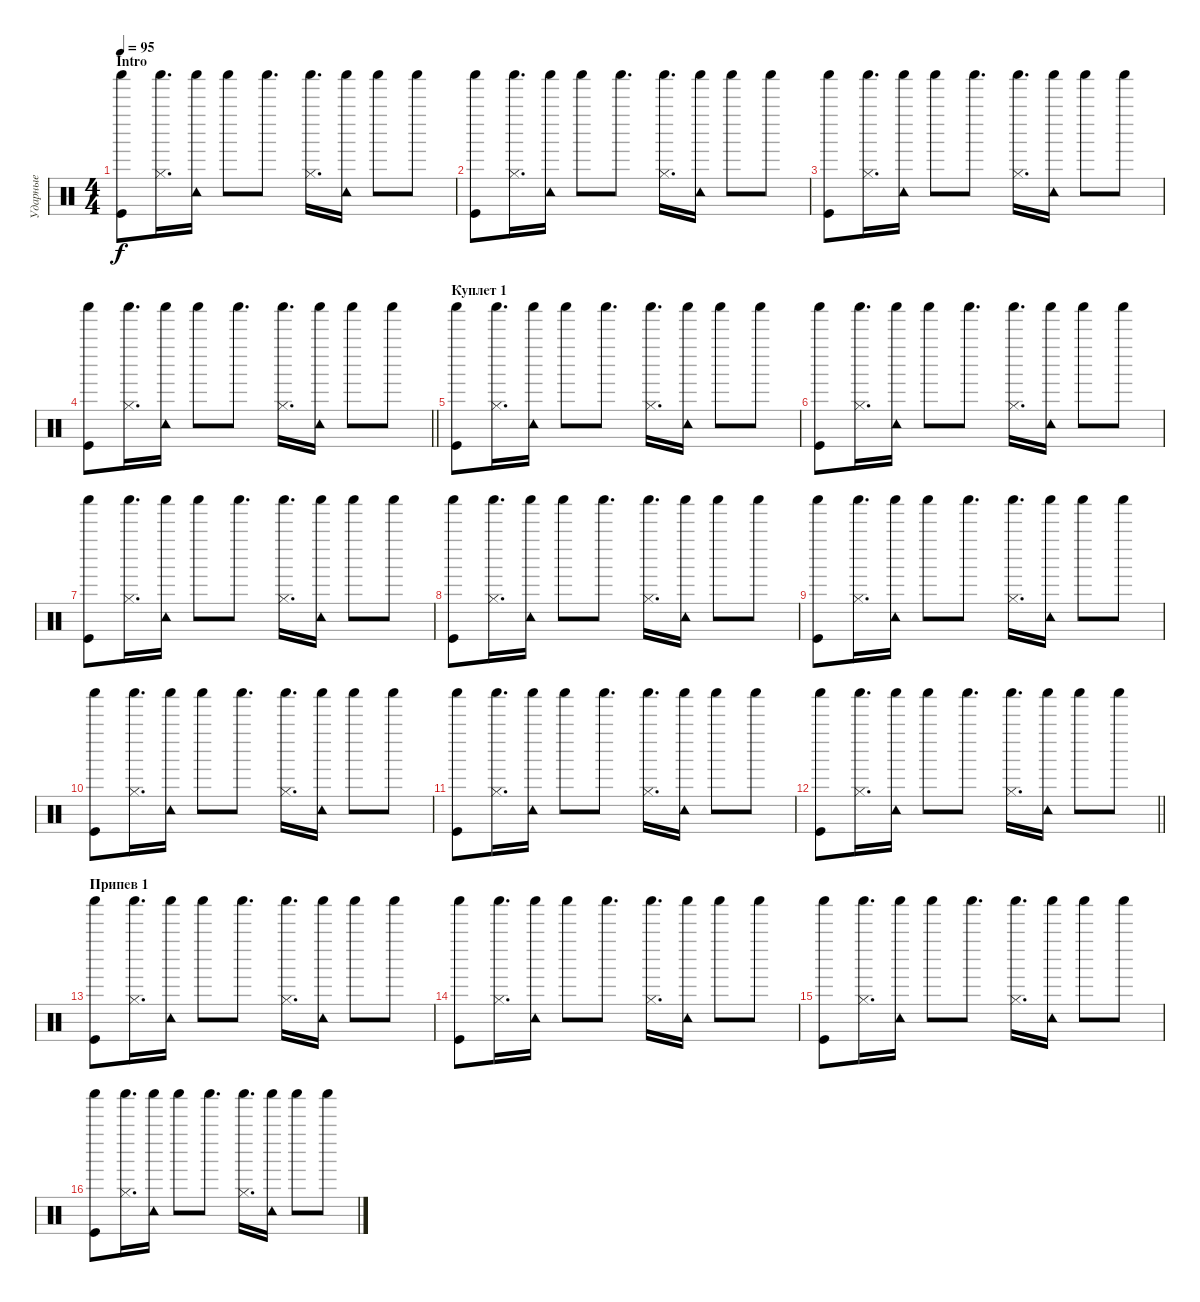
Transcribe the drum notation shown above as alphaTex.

\track ("Ударные" "Ударные") {instrument percussion}
\staff {score}
\articulation defaults
\ts (4 4)
\section ("" "Intro")
\tempo 95
\clef neutral
\ks c
("Kick (hit)" "Shaker (hit)").8{dy f} ("Hi-Hat (closed)" "Shaker (hit)").16{d} ("Tambourine (hit)" "Shaker (hit)").16 "Shaker (hit)".8 "Shaker (hit)".8{d} ("Hi-Hat (closed)" "Shaker (hit)").16{d} ("Tambourine (hit)" "Shaker (hit)").16 "Shaker (hit)".8 "Shaker (hit)".8 |
("Kick (hit)" "Shaker (hit)").8 ("Hi-Hat (closed)" "Shaker (hit)").16{d} ("Tambourine (hit)" "Shaker (hit)").16 "Shaker (hit)".8 "Shaker (hit)".8{d} ("Hi-Hat (closed)" "Shaker (hit)").16{d} ("Tambourine (hit)" "Shaker (hit)").16 "Shaker (hit)".8 "Shaker (hit)".8 |
("Kick (hit)" "Shaker (hit)").8 ("Hi-Hat (closed)" "Shaker (hit)").16{d} ("Tambourine (hit)" "Shaker (hit)").16 "Shaker (hit)".8 "Shaker (hit)".8{d} ("Hi-Hat (closed)" "Shaker (hit)").16{d} ("Tambourine (hit)" "Shaker (hit)").16 "Shaker (hit)".8 "Shaker (hit)".8 |
\barLineRight lightlight
("Kick (hit)" "Shaker (hit)").8 ("Hi-Hat (closed)" "Shaker (hit)").16{d} ("Tambourine (hit)" "Shaker (hit)").16 "Shaker (hit)".8 "Shaker (hit)".8{d} ("Hi-Hat (closed)" "Shaker (hit)").16{d} ("Tambourine (hit)" "Shaker (hit)").16 "Shaker (hit)".8 "Shaker (hit)".8 |
\section ("" "Куплет 1")
("Kick (hit)" "Shaker (hit)").8 ("Hi-Hat (closed)" "Shaker (hit)").16{d} ("Tambourine (hit)" "Shaker (hit)").16 "Shaker (hit)".8 "Shaker (hit)".8{d} ("Hi-Hat (closed)" "Shaker (hit)").16{d} ("Tambourine (hit)" "Shaker (hit)").16 "Shaker (hit)".8 "Shaker (hit)".8 |
("Kick (hit)" "Shaker (hit)").8 ("Hi-Hat (closed)" "Shaker (hit)").16{d} ("Tambourine (hit)" "Shaker (hit)").16 "Shaker (hit)".8 "Shaker (hit)".8{d} ("Hi-Hat (closed)" "Shaker (hit)").16{d} ("Tambourine (hit)" "Shaker (hit)").16 "Shaker (hit)".8 "Shaker (hit)".8 |
("Kick (hit)" "Shaker (hit)").8 ("Hi-Hat (closed)" "Shaker (hit)").16{d} ("Tambourine (hit)" "Shaker (hit)").16 "Shaker (hit)".8 "Shaker (hit)".8{d} ("Hi-Hat (closed)" "Shaker (hit)").16{d} ("Tambourine (hit)" "Shaker (hit)").16 "Shaker (hit)".8 "Shaker (hit)".8 |
("Kick (hit)" "Shaker (hit)").8 ("Hi-Hat (closed)" "Shaker (hit)").16{d} ("Tambourine (hit)" "Shaker (hit)").16 "Shaker (hit)".8 "Shaker (hit)".8{d} ("Hi-Hat (closed)" "Shaker (hit)").16{d} ("Tambourine (hit)" "Shaker (hit)").16 "Shaker (hit)".8 "Shaker (hit)".8 |
("Kick (hit)" "Shaker (hit)").8 ("Hi-Hat (closed)" "Shaker (hit)").16{d} ("Tambourine (hit)" "Shaker (hit)").16 "Shaker (hit)".8 "Shaker (hit)".8{d} ("Hi-Hat (closed)" "Shaker (hit)").16{d} ("Tambourine (hit)" "Shaker (hit)").16 "Shaker (hit)".8 "Shaker (hit)".8 |
("Kick (hit)" "Shaker (hit)").8 ("Hi-Hat (closed)" "Shaker (hit)").16{d} ("Tambourine (hit)" "Shaker (hit)").16 "Shaker (hit)".8 "Shaker (hit)".8{d} ("Hi-Hat (closed)" "Shaker (hit)").16{d} ("Tambourine (hit)" "Shaker (hit)").16 "Shaker (hit)".8 "Shaker (hit)".8 |
("Kick (hit)" "Shaker (hit)").8 ("Hi-Hat (closed)" "Shaker (hit)").16{d} ("Tambourine (hit)" "Shaker (hit)").16 "Shaker (hit)".8 "Shaker (hit)".8{d} ("Hi-Hat (closed)" "Shaker (hit)").16{d} ("Tambourine (hit)" "Shaker (hit)").16 "Shaker (hit)".8 "Shaker (hit)".8 |
\barLineRight lightlight
("Kick (hit)" "Shaker (hit)").8 ("Hi-Hat (closed)" "Shaker (hit)").16{d} ("Tambourine (hit)" "Shaker (hit)").16 "Shaker (hit)".8 "Shaker (hit)".8{d} ("Hi-Hat (closed)" "Shaker (hit)").16{d} ("Tambourine (hit)" "Shaker (hit)").16 "Shaker (hit)".8 "Shaker (hit)".8 |
\section ("" "Припев 1")
("Kick (hit)" "Shaker (hit)").8 ("Hi-Hat (closed)" "Shaker (hit)").16{d} ("Tambourine (hit)" "Shaker (hit)").16 "Shaker (hit)".8 "Shaker (hit)".8{d} ("Hi-Hat (closed)" "Shaker (hit)").16{d} ("Tambourine (hit)" "Shaker (hit)").16 "Shaker (hit)".8 "Shaker (hit)".8 |
("Kick (hit)" "Shaker (hit)").8 ("Hi-Hat (closed)" "Shaker (hit)").16{d} ("Tambourine (hit)" "Shaker (hit)").16 "Shaker (hit)".8 "Shaker (hit)".8{d} ("Hi-Hat (closed)" "Shaker (hit)").16{d} ("Tambourine (hit)" "Shaker (hit)").16 "Shaker (hit)".8 "Shaker (hit)".8 |
("Kick (hit)" "Shaker (hit)").8 ("Hi-Hat (closed)" "Shaker (hit)").16{d} ("Tambourine (hit)" "Shaker (hit)").16 "Shaker (hit)".8 "Shaker (hit)".8{d} ("Hi-Hat (closed)" "Shaker (hit)").16{d} ("Tambourine (hit)" "Shaker (hit)").16 "Shaker (hit)".8 "Shaker (hit)".8 |
("Kick (hit)" "Shaker (hit)").8 ("Hi-Hat (closed)" "Shaker (hit)").16{d} ("Tambourine (hit)" "Shaker (hit)").16 "Shaker (hit)".8 "Shaker (hit)".8{d} ("Hi-Hat (closed)" "Shaker (hit)").16{d} ("Tambourine (hit)" "Shaker (hit)").16 "Shaker (hit)".8 "Shaker (hit)".8
